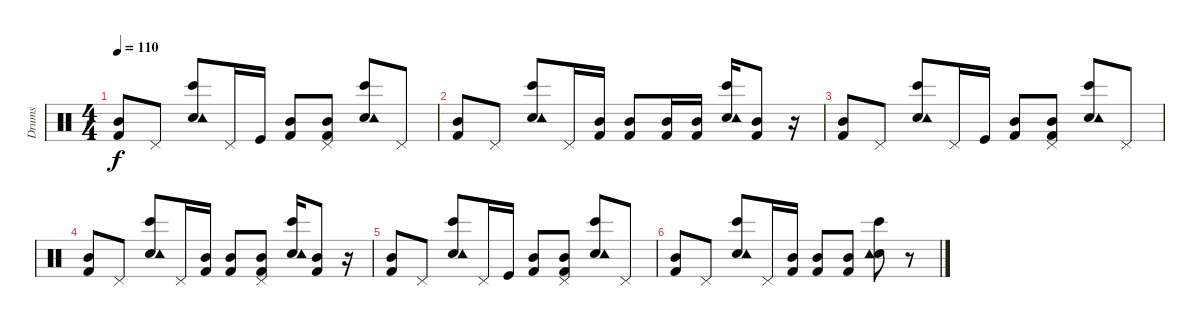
\track ("Drums" "Drums") {instrument percussion}
\staff {score}
\articulation defaults
\ts (4 4)
\tempo 110
\clef neutral
\ks c
("Mid Tom (hit)" "Kick (hit) 2").8{dy f} "Pedal Hi-Hat (hit)".8 ("Electric Snare (hit)" "Bongo High (hit)" "Tambourine (hit)").8 "Pedal Hi-Hat (hit)".16 "Kick (hit)".16 ("Mid Tom (hit)" "Kick (hit) 2").8 ("Pedal Hi-Hat (hit)" "Mid Tom (hit)" "Kick (hit) 2").8 ("Electric Snare (hit)" "Bongo High (hit)" "Tambourine (hit)").8 "Pedal Hi-Hat (hit)".8 |
("Mid Tom (hit)" "Kick (hit) 2").8 "Pedal Hi-Hat (hit)".8 ("Electric Snare (hit)" "Bongo High (hit)" "Tambourine (hit)").8 "Pedal Hi-Hat (hit)".16 ("Mid Tom (hit)" "Kick (hit) 2").16 ("Mid Tom (hit)" "Kick (hit) 2").8 ("Mid Tom (hit)" "Kick (hit) 2").16 ("Mid Tom (hit)" "Kick (hit) 2").16 ("Electric Snare (hit)" "Bongo High (hit)" "Tambourine (hit)").16 ("Mid Tom (hit)" "Kick (hit) 2").8 r.16 |
("Mid Tom (hit)" "Kick (hit) 2").8 "Pedal Hi-Hat (hit)".8 ("Electric Snare (hit)" "Bongo High (hit)" "Tambourine (hit)").8 "Pedal Hi-Hat (hit)".16 "Kick (hit)".16 ("Mid Tom (hit)" "Kick (hit) 2").8 ("Pedal Hi-Hat (hit)" "Mid Tom (hit)" "Kick (hit) 2").8 ("Electric Snare (hit)" "Bongo High (hit)" "Tambourine (hit)").8 "Pedal Hi-Hat (hit)".8 |
("Mid Tom (hit)" "Kick (hit) 2").8 "Pedal Hi-Hat (hit)".8 ("Electric Snare (hit)" "Bongo High (hit)" "Tambourine (hit)").8 "Pedal Hi-Hat (hit)".16 ("Mid Tom (hit)" "Kick (hit) 2").16 ("Mid Tom (hit)" "Kick (hit) 2").8 ("Pedal Hi-Hat (hit)" "Mid Tom (hit)" "Kick (hit) 2").8 ("Electric Snare (hit)" "Bongo High (hit)" "Tambourine (hit)").16 ("Mid Tom (hit)" "Kick (hit) 2").8 r.16 |
("Mid Tom (hit)" "Kick (hit) 2").8 "Pedal Hi-Hat (hit)".8 ("Electric Snare (hit)" "Bongo High (hit)" "Tambourine (hit)").8 "Pedal Hi-Hat (hit)".16 "Kick (hit)".16 ("Mid Tom (hit)" "Kick (hit) 2").8 ("Pedal Hi-Hat (hit)" "Mid Tom (hit)" "Kick (hit) 2").8 ("Electric Snare (hit)" "Bongo High (hit)" "Tambourine (hit)").8 "Pedal Hi-Hat (hit)".8 |
("Mid Tom (hit)" "Kick (hit) 2").8 "Pedal Hi-Hat (hit)".8 ("Electric Snare (hit)" "Bongo High (hit)" "Tambourine (hit)").8 "Pedal Hi-Hat (hit)".16 ("Mid Tom (hit)" "Kick (hit) 2").16 ("Mid Tom (hit)" "Kick (hit) 2").8 ("Mid Tom (hit)" "Kick (hit) 2").8 ("Electric Snare (hit)" "Bongo High (hit)" "Tambourine (hit)").8 r.8
